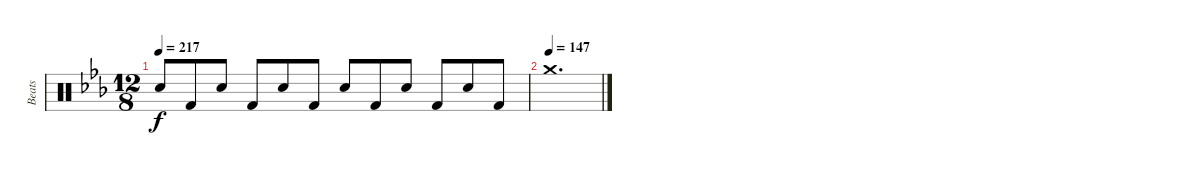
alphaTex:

\track ("Beats" "Beats") {instrument percussion}
\staff {score}
\articulation defaults
\ts (12 8)
\tempo 217
\clef neutral
\ks eb "Snare (hit) 2".8{dy f} "Kick (hit) 2".8 "Snare (hit) 2".8 "Kick (hit) 2".8 "Snare (hit) 2".8 "Kick (hit) 2".8 "Snare (hit) 2".8 "Kick (hit) 2".8 "Snare (hit) 2".8 "Kick (hit) 2".8 "Snare (hit) 2".8 "Kick (hit) 2".8
|
\tempo (147)
"Crash medium (hit)".1{d}
